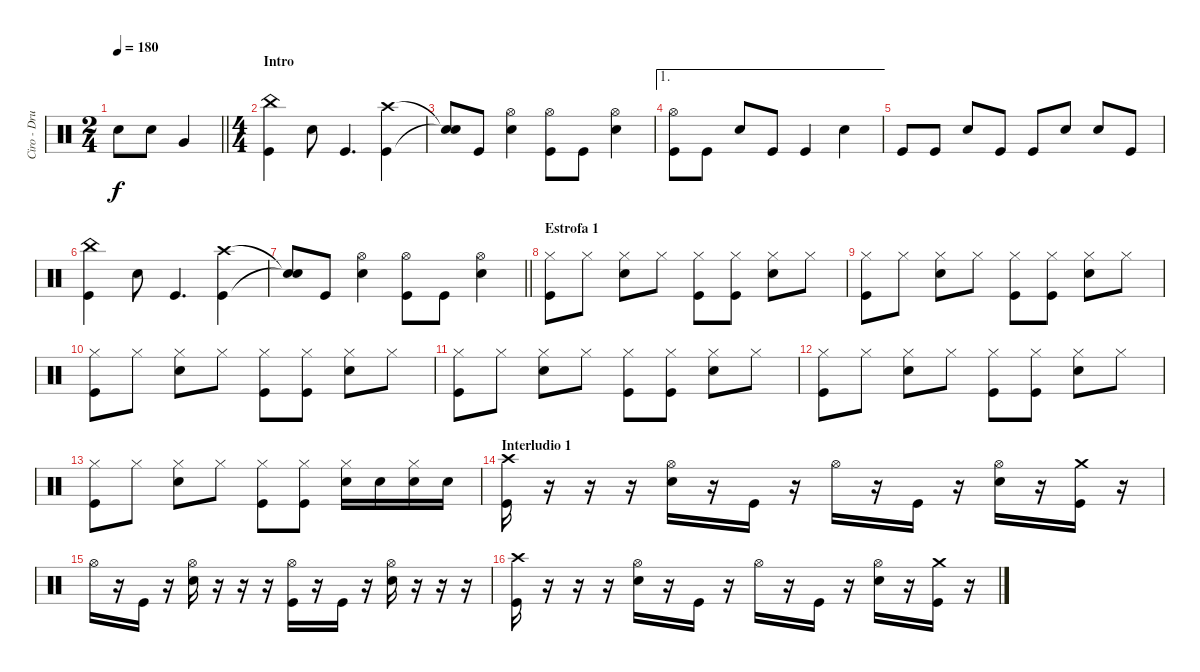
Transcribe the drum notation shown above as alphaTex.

\track ("Ciro - Drums" "Ciro - Dru") {instrument percussion}
\staff {score}
\articulation defaults
\ts (2 4)
\tempo 180
\clef neutral
\barLineRight lightlight
\ks c "Electric Snare (hit)".8{dy f} "Electric Snare (hit)".8 "Very Low Tom (hit)".4
|
\ts (4 4)
\section ("" "Intro")
("China (hit)" "Kick (hit)").4 "Electric Snare (hit)".8 "Kick (hit)".4{d} ("Crash high (hit)" "Kick (hit)").4 |
("Snare (hit)"{t} "Snare (hit)"{t}).8 "Kick (hit)".8 ("Hi-Hat (open)" "Electric Snare (hit)").4 ("Hi-Hat (open)" "Kick (hit)").8 "Kick (hit)".8 ("Hi-Hat (open)" "Electric Snare (hit)").4 |
\ae 1
("Hi-Hat (open)" "Kick (hit)").8 "Kick (hit)".8 "Electric Snare (hit)".8 "Kick (hit)".8 "Kick (hit)".4 "Electric Snare (hit)".4 |
"Kick (hit)".8 "Kick (hit)".8 "Electric Snare (hit)".8 "Kick (hit)".8 "Kick (hit)".8 "Electric Snare (hit)".8 "Electric Snare (hit)".8 "Kick (hit)".8 |
("China (hit)" "Kick (hit)").4 "Electric Snare (hit)".8 "Kick (hit)".4{d} ("Crash high (hit)" "Kick (hit)").4 |
\barLineRight lightlight
("Snare (hit)"{t} "Snare (hit)"{t}).8 "Kick (hit)".8 ("Hi-Hat (open)" "Electric Snare (hit)").4 ("Hi-Hat (open)" "Kick (hit)").8 "Kick (hit)".8 ("Hi-Hat (open)" "Electric Snare (hit)").4 |
\section ("" "Estrofa 1")
("Hi-Hat (closed)" "Kick (hit)").8 "Hi-Hat (closed)".8 ("Hi-Hat (closed)" "Electric Snare (hit)").8 "Hi-Hat (closed)".8 ("Hi-Hat (closed)" "Kick (hit)").8 ("Hi-Hat (closed)" "Kick (hit)").8 ("Hi-Hat (closed)" "Electric Snare (hit)").8 "Hi-Hat (closed)".8 |
("Hi-Hat (closed)" "Kick (hit)").8 "Hi-Hat (closed)".8 ("Hi-Hat (closed)" "Electric Snare (hit)").8 "Hi-Hat (closed)".8 ("Hi-Hat (closed)" "Kick (hit)").8 ("Hi-Hat (closed)" "Kick (hit)").8 ("Hi-Hat (closed)" "Electric Snare (hit)").8 "Hi-Hat (closed)".8 |
("Hi-Hat (closed)" "Kick (hit)").8 "Hi-Hat (closed)".8 ("Hi-Hat (closed)" "Electric Snare (hit)").8 "Hi-Hat (closed)".8 ("Hi-Hat (closed)" "Kick (hit)").8 ("Hi-Hat (closed)" "Kick (hit)").8 ("Hi-Hat (closed)" "Electric Snare (hit)").8 "Hi-Hat (closed)".8 |
("Hi-Hat (closed)" "Kick (hit)").8 "Hi-Hat (closed)".8 ("Hi-Hat (closed)" "Electric Snare (hit)").8 "Hi-Hat (closed)".8 ("Hi-Hat (closed)" "Kick (hit)").8 ("Hi-Hat (closed)" "Kick (hit)").8 ("Hi-Hat (closed)" "Electric Snare (hit)").8 "Hi-Hat (closed)".8 |
("Hi-Hat (closed)" "Kick (hit)").8 "Hi-Hat (closed)".8 ("Hi-Hat (closed)" "Electric Snare (hit)").8 "Hi-Hat (closed)".8 ("Hi-Hat (closed)" "Kick (hit)").8 ("Hi-Hat (closed)" "Kick (hit)").8 ("Hi-Hat (closed)" "Electric Snare (hit)").8 "Hi-Hat (closed)".8 |
("Hi-Hat (closed)" "Kick (hit)").8 "Hi-Hat (closed)".8 ("Hi-Hat (closed)" "Electric Snare (hit)").8 "Hi-Hat (closed)".8 ("Hi-Hat (closed)" "Kick (hit)").8 ("Hi-Hat (closed)" "Kick (hit)").8 ("Hi-Hat (closed)" "Electric Snare (hit)").16 "Electric Snare (hit)".16 ("Hi-Hat (closed)" "Electric Snare (hit)").16 "Electric Snare (hit)".16 |
\section ("" "Interludio 1")
("Crash high (hit)" "Kick (hit)").16 r.16 r.16 r.16 ("Hi-Hat (open)" "Electric Snare (hit)").16 r.16 "Kick (hit)".16 r.16 "Hi-Hat (open)".16 r.16 "Kick (hit)".16 r.16 ("Hi-Hat (open)" "Electric Snare (hit)").16 r.16 ("Crash medium (hit)" "Kick (hit)").16 r.16 |
"Hi-Hat (open)".16 r.16 "Kick (hit)".16 r.16 ("Hi-Hat (open)" "Electric Snare (hit)").16 r.16 r.16 r.16 ("Hi-Hat (open)" "Kick (hit)").16 r.16 "Kick (hit)".16 r.16 ("Hi-Hat (open)" "Electric Snare (hit)").16 r.16 r.16 r.16 |
("Crash high (hit)" "Kick (hit)").16 r.16 r.16 r.16 ("Hi-Hat (open)" "Electric Snare (hit)").16 r.16 "Kick (hit)".16 r.16 "Hi-Hat (open)".16 r.16 "Kick (hit)".16 r.16 ("Hi-Hat (open)" "Electric Snare (hit)").16 r.16 ("Crash medium (hit)" "Kick (hit)").16 r.16
